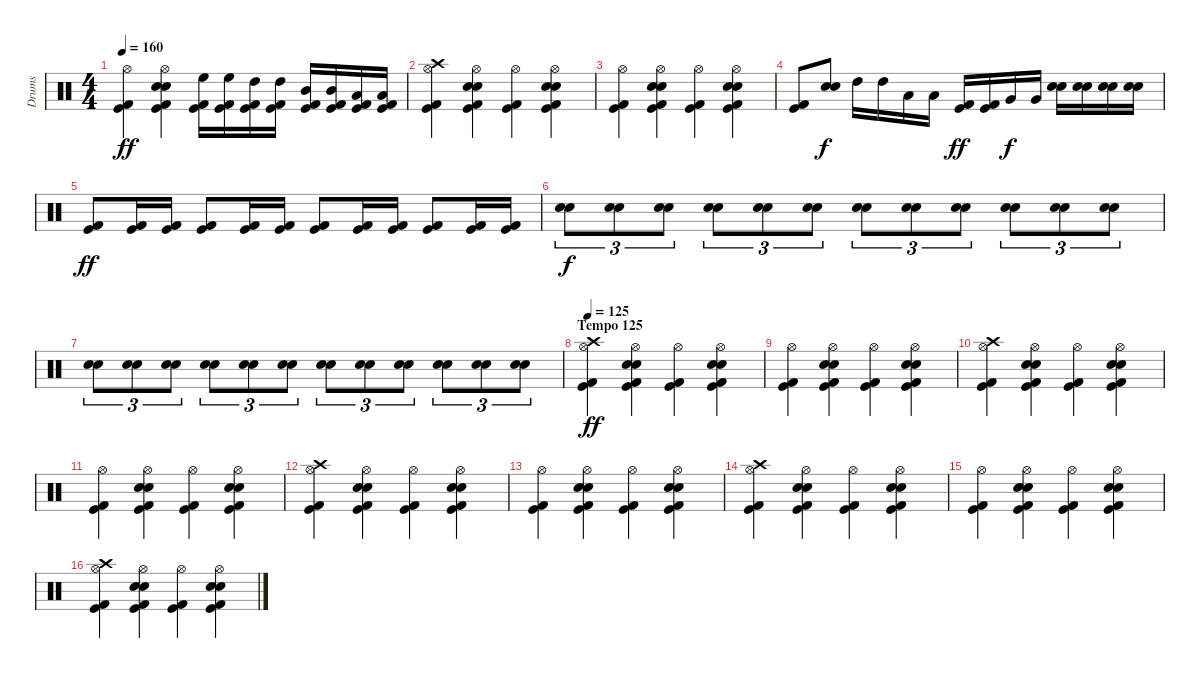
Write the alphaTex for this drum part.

\track ("Drums" "Drums") {instrument percussion}
\staff {score}
\articulation defaults
\ts (4 4)
\tempo 160
\clef neutral
\ks c
("Hi-Hat (open)" "Kick (hit) 2" "Kick (hit)").4{dy ff} ("Hi-Hat (open)" "Snare (hit) 2" "Electric Snare (hit)" "Kick (hit) 2" "Kick (hit)").4 ("High Floor Tom (hit)" "Kick (hit) 2" "Kick (hit)").16 ("High Floor Tom (hit)" "Kick (hit) 2" "Kick (hit)").16 ("High Tom (hit)" "Kick (hit) 2" "Kick (hit)").16 ("High Tom (hit)" "Kick (hit) 2" "Kick (hit)").16 ("Mid Tom (hit)" "Kick (hit) 2" "Kick (hit)").16 ("Mid Tom (hit)" "Kick (hit) 2" "Kick (hit)").16 ("Low Tom (hit)" "Kick (hit) 2" "Kick (hit)").16 ("Low Tom (hit)" "Kick (hit) 2" "Kick (hit)").16 |
("Hi-Hat (open)" "Crash high (hit)" "Kick (hit) 2" "Kick (hit)").4 ("Hi-Hat (open)" "Snare (hit) 2" "Electric Snare (hit)" "Kick (hit) 2" "Kick (hit)").4 ("Hi-Hat (open)" "Kick (hit) 2" "Kick (hit)").4 ("Hi-Hat (open)" "Snare (hit) 2" "Electric Snare (hit)" "Kick (hit) 2" "Kick (hit)").4 |
("Hi-Hat (open)" "Kick (hit) 2" "Kick (hit)").4 ("Hi-Hat (open)" "Snare (hit) 2" "Electric Snare (hit)" "Kick (hit) 2" "Kick (hit)").4 ("Hi-Hat (open)" "Kick (hit) 2" "Kick (hit)").4 ("Hi-Hat (open)" "Snare (hit) 2" "Electric Snare (hit)" "Kick (hit) 2" "Kick (hit)").4 |
("Kick (hit) 2" "Kick (hit)").8 ("Snare (hit) 2" "Electric Snare (hit)").8{dy f} "High Tom (hit)".16 "High Tom (hit)".16 "Low Tom (hit)".16 "Low Tom (hit)".16 ("Kick (hit) 2" "Kick (hit)").16{dy ff} ("Kick (hit) 2" "Kick (hit)").16 "Very Low Tom (hit)".16{dy f} "Very Low Tom (hit)".16 ("Electric Snare (hit)" "Snare (hit) 2").16 ("Electric Snare (hit)" "Snare (hit) 2").16 ("Electric Snare (hit)" "Snare (hit) 2").16 ("Electric Snare (hit)" "Snare (hit) 2").16 |
("Kick (hit) 2" "Kick (hit)").8{dy ff} ("Kick (hit) 2" "Kick (hit)").16 ("Kick (hit) 2" "Kick (hit)").16 ("Kick (hit) 2" "Kick (hit)").8 ("Kick (hit) 2" "Kick (hit)").16 ("Kick (hit) 2" "Kick (hit)").16 ("Kick (hit) 2" "Kick (hit)").8 ("Kick (hit) 2" "Kick (hit)").16 ("Kick (hit) 2" "Kick (hit)").16 ("Kick (hit) 2" "Kick (hit)").8 ("Kick (hit) 2" "Kick (hit)").16 ("Kick (hit) 2" "Kick (hit)").16 |
("Electric Snare (hit)" "Snare (hit) 2").8{tu (3 2) dy f} ("Electric Snare (hit)" "Snare (hit) 2").8{tu (3 2)} ("Electric Snare (hit)" "Snare (hit) 2").8{tu (3 2)} ("Electric Snare (hit)" "Snare (hit) 2").8{tu (3 2)} ("Electric Snare (hit)" "Snare (hit) 2").8{tu (3 2)} ("Electric Snare (hit)" "Snare (hit) 2").8{tu (3 2)} ("Electric Snare (hit)" "Snare (hit) 2").8{tu (3 2)} ("Electric Snare (hit)" "Snare (hit) 2").8{tu (3 2)} ("Electric Snare (hit)" "Snare (hit) 2").8{tu (3 2)} ("Electric Snare (hit)" "Snare (hit) 2").8{tu (3 2)} ("Electric Snare (hit)" "Snare (hit) 2").8{tu (3 2)} ("Electric Snare (hit)" "Snare (hit) 2").8{tu (3 2)} |
("Electric Snare (hit)" "Snare (hit) 2").8{tu (3 2)} ("Electric Snare (hit)" "Snare (hit) 2").8{tu (3 2)} ("Electric Snare (hit)" "Snare (hit) 2").8{tu (3 2)} ("Electric Snare (hit)" "Snare (hit) 2").8{tu (3 2)} ("Electric Snare (hit)" "Snare (hit) 2").8{tu (3 2)} ("Electric Snare (hit)" "Snare (hit) 2").8{tu (3 2)} ("Electric Snare (hit)" "Snare (hit) 2").8{tu (3 2)} ("Electric Snare (hit)" "Snare (hit) 2").8{tu (3 2)} ("Electric Snare (hit)" "Snare (hit) 2").8{tu (3 2)} ("Electric Snare (hit)" "Snare (hit) 2").8{tu (3 2)} ("Electric Snare (hit)" "Snare (hit) 2").8{tu (3 2)} ("Electric Snare (hit)" "Snare (hit) 2").8{tu (3 2)} |
\section ("" "Tempo 125")
\tempo 125
("Hi-Hat (open)" "Crash high (hit)" "Kick (hit) 2" "Kick (hit)").4{dy ff} ("Hi-Hat (open)" "Snare (hit) 2" "Electric Snare (hit)" "Kick (hit) 2" "Kick (hit)").4 ("Hi-Hat (open)" "Kick (hit) 2" "Kick (hit)").4 ("Hi-Hat (open)" "Snare (hit) 2" "Electric Snare (hit)" "Kick (hit) 2" "Kick (hit)").4 |
("Hi-Hat (open)" "Kick (hit) 2" "Kick (hit)").4 ("Hi-Hat (open)" "Snare (hit) 2" "Electric Snare (hit)" "Kick (hit) 2" "Kick (hit)").4 ("Hi-Hat (open)" "Kick (hit) 2" "Kick (hit)").4 ("Hi-Hat (open)" "Snare (hit) 2" "Electric Snare (hit)" "Kick (hit) 2" "Kick (hit)").4 |
("Hi-Hat (open)" "Crash high (hit)" "Kick (hit) 2" "Kick (hit)").4 ("Hi-Hat (open)" "Snare (hit) 2" "Electric Snare (hit)" "Kick (hit) 2" "Kick (hit)").4 ("Hi-Hat (open)" "Kick (hit) 2" "Kick (hit)").4 ("Hi-Hat (open)" "Snare (hit) 2" "Electric Snare (hit)" "Kick (hit) 2" "Kick (hit)").4 |
("Hi-Hat (open)" "Kick (hit) 2" "Kick (hit)").4 ("Hi-Hat (open)" "Snare (hit) 2" "Electric Snare (hit)" "Kick (hit) 2" "Kick (hit)").4 ("Hi-Hat (open)" "Kick (hit) 2" "Kick (hit)").4 ("Hi-Hat (open)" "Snare (hit) 2" "Electric Snare (hit)" "Kick (hit) 2" "Kick (hit)").4 |
("Hi-Hat (open)" "Crash high (hit)" "Kick (hit) 2" "Kick (hit)").4 ("Hi-Hat (open)" "Snare (hit) 2" "Electric Snare (hit)" "Kick (hit) 2" "Kick (hit)").4 ("Hi-Hat (open)" "Kick (hit) 2" "Kick (hit)").4 ("Hi-Hat (open)" "Snare (hit) 2" "Electric Snare (hit)" "Kick (hit) 2" "Kick (hit)").4 |
("Hi-Hat (open)" "Kick (hit) 2" "Kick (hit)").4 ("Hi-Hat (open)" "Snare (hit) 2" "Electric Snare (hit)" "Kick (hit) 2" "Kick (hit)").4 ("Hi-Hat (open)" "Kick (hit) 2" "Kick (hit)").4 ("Hi-Hat (open)" "Snare (hit) 2" "Electric Snare (hit)" "Kick (hit) 2" "Kick (hit)").4 |
("Hi-Hat (open)" "Crash high (hit)" "Kick (hit) 2" "Kick (hit)").4 ("Hi-Hat (open)" "Snare (hit) 2" "Electric Snare (hit)" "Kick (hit) 2" "Kick (hit)").4 ("Hi-Hat (open)" "Kick (hit) 2" "Kick (hit)").4 ("Hi-Hat (open)" "Snare (hit) 2" "Electric Snare (hit)" "Kick (hit) 2" "Kick (hit)").4 |
("Hi-Hat (open)" "Kick (hit) 2" "Kick (hit)").4 ("Hi-Hat (open)" "Snare (hit) 2" "Electric Snare (hit)" "Kick (hit) 2" "Kick (hit)").4 ("Hi-Hat (open)" "Kick (hit) 2" "Kick (hit)").4 ("Hi-Hat (open)" "Snare (hit) 2" "Electric Snare (hit)" "Kick (hit) 2" "Kick (hit)").4 |
("Hi-Hat (open)" "Crash high (hit)" "Kick (hit) 2" "Kick (hit)").4 ("Hi-Hat (open)" "Snare (hit) 2" "Electric Snare (hit)" "Kick (hit) 2" "Kick (hit)").4 ("Hi-Hat (open)" "Kick (hit) 2" "Kick (hit)").4 ("Hi-Hat (open)" "Snare (hit) 2" "Electric Snare (hit)" "Kick (hit) 2" "Kick (hit)").4
